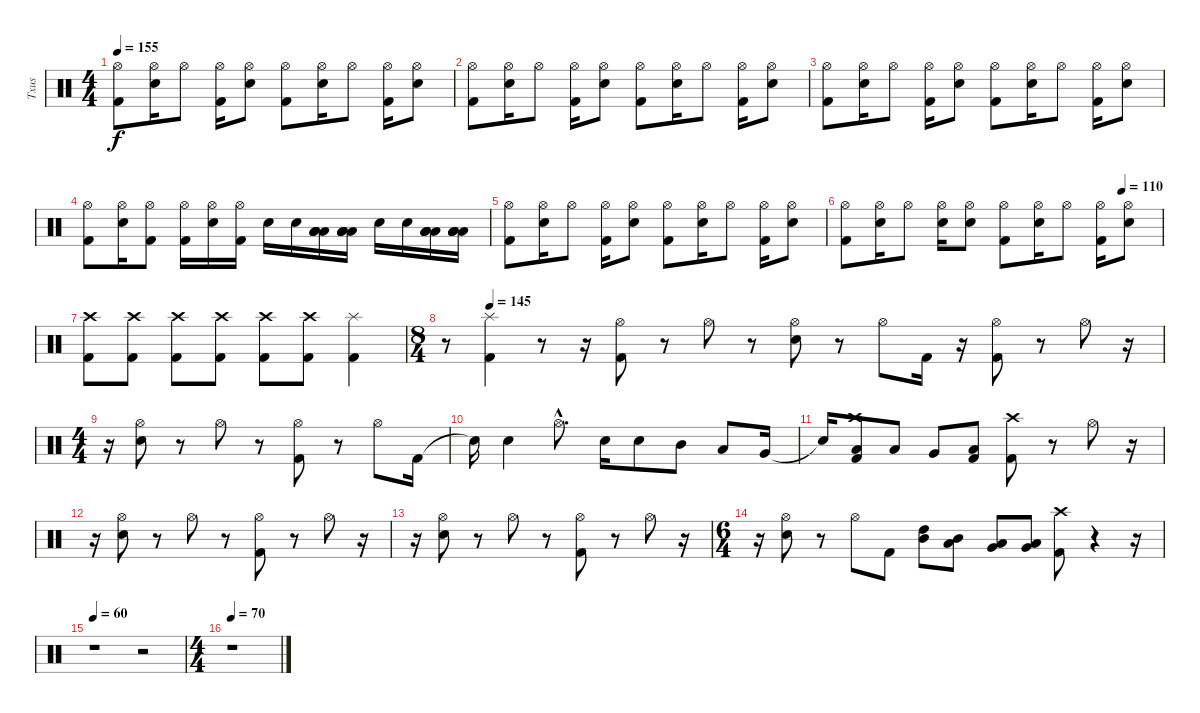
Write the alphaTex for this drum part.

\track ("Txus" "Txus") {instrument percussion}
\staff {score}
\articulation defaults
\ts (4 4)
\tempo 155
\clef neutral
\ks c
("Kick (hit) 2" "Hi-Hat (open)").8{dy f} ("Snare (hit) 2" "Hi-Hat (open)").16 "Hi-Hat (open)".8 ("Kick (hit) 2" "Hi-Hat (open)").16 ("Snare (hit) 2" "Hi-Hat (open)").8 ("Kick (hit) 2" "Hi-Hat (open)").8 ("Snare (hit) 2" "Hi-Hat (open)").16 "Hi-Hat (open)".8 ("Kick (hit) 2" "Hi-Hat (open)").16 ("Snare (hit) 2" "Hi-Hat (open)").8 |
("Kick (hit) 2" "Hi-Hat (open)").8 ("Snare (hit) 2" "Hi-Hat (open)").16 "Hi-Hat (open)".8 ("Kick (hit) 2" "Hi-Hat (open)").16 ("Snare (hit) 2" "Hi-Hat (open)").8 ("Kick (hit) 2" "Hi-Hat (open)").8 ("Snare (hit) 2" "Hi-Hat (open)").16 "Hi-Hat (open)".8 ("Kick (hit) 2" "Hi-Hat (open)").16 ("Snare (hit) 2" "Hi-Hat (open)").8 |
("Kick (hit) 2" "Hi-Hat (open)").8 ("Snare (hit) 2" "Hi-Hat (open)").16 "Hi-Hat (open)".8 ("Kick (hit) 2" "Hi-Hat (open)").16 ("Snare (hit) 2" "Hi-Hat (open)").8 ("Kick (hit) 2" "Hi-Hat (open)").8 ("Snare (hit) 2" "Hi-Hat (open)").16 "Hi-Hat (open)".8 ("Kick (hit) 2" "Hi-Hat (open)").16 ("Snare (hit) 2" "Hi-Hat (open)").8 |
("Hi-Hat (open)" "Kick (hit) 2").8 ("Hi-Hat (open)" "Snare (hit) 2").16 ("Hi-Hat (open)" "Kick (hit) 2").8 ("Hi-Hat (open)" "Kick (hit) 2").16 ("Hi-Hat (open)" "Snare (hit) 2").16 ("Hi-Hat (open)" "Kick (hit) 2").16 "Snare (hit) 2".16 "Snare (hit) 2".16 ("Low Tom (hit)" "Low Tom (hit)" "Low Tom (hit)" "Low Tom (hit)").16 ("Low Tom (hit)" "Low Tom (hit)" "Low Tom (hit)" "Low Tom (hit)").16 "Snare (hit) 2".16 "Snare (hit) 2".16 ("Low Tom (hit)" "Low Tom (hit)" "Low Tom (hit)" "Low Tom (hit)").16 ("Low Tom (hit)" "Low Tom (hit)" "Low Tom (hit)" "Low Tom (hit)").16 |
("Kick (hit) 2" "Hi-Hat (open)").8 ("Snare (hit) 2" "Hi-Hat (open)").16 "Hi-Hat (open)".8 ("Kick (hit) 2" "Hi-Hat (open)").16 ("Snare (hit) 2" "Hi-Hat (open)").8 ("Kick (hit) 2" "Hi-Hat (open)").8 ("Snare (hit) 2" "Hi-Hat (open)").16 "Hi-Hat (open)".8 ("Kick (hit) 2" "Hi-Hat (open)").16 ("Snare (hit) 2" "Hi-Hat (open)").8 |
\tempo (110 0.875)
("Kick (hit) 2" "Hi-Hat (open)").8 ("Snare (hit) 2" "Hi-Hat (open)").16 "Hi-Hat (open)".8 ("Snare (hit) 2" "Hi-Hat (open)").16 ("Snare (hit) 2" "Hi-Hat (open)").8 ("Kick (hit) 2" "Hi-Hat (open)").8 ("Snare (hit) 2" "Hi-Hat (open)").16 "Hi-Hat (open)".8 ("Kick (hit) 2" "Hi-Hat (open)").16 ("Snare (hit) 2" "Hi-Hat (open)").8 |
("Kick (hit) 2" "Crash high (hit)").8 ("Kick (hit) 2" "Crash high (hit)").8 ("Kick (hit) 2" "Crash high (hit)").8 ("Kick (hit) 2" "Crash high (hit)").8 ("Kick (hit) 2" "Crash high (hit)").8 ("Kick (hit) 2" "Crash high (hit)").8 ("Kick (hit) 2" "Splash (hit)").4 |
\ts (8 4)
\tempo (155 0.0625)
\tempo (145 0.0625)
r.8 ("Kick (hit) 2" "Splash (hit)").4 r.8 r.16 ("Kick (hit) 2" "Hi-Hat (open)").8 r.8 "Hi-Hat (open)".8 r.8 ("Snare (hit) 2" "Hi-Hat (open)").8 r.8 "Hi-Hat (open)".8 "Kick (hit) 2".16 r.16 ("Kick (hit) 2" "Hi-Hat (open)").8 r.8 "Hi-Hat (open)".8 r.16 |
\ts (4 4)
r.16 ("Snare (hit) 2" "Hi-Hat (open)").8 r.8 "Hi-Hat (open)".8 r.8 ("Kick (hit) 2" "Hi-Hat (open)").8 r.8 "Hi-Hat (open)".8 "Kick (hit) 2".16 |
"Snare (hit)"{t}.16 "Snare (hit) 2".4 "Hi-Hat (open)"{hac}.8{d} "Snare (hit) 2".16 "Snare (hit) 2".8 "Mid Tom (hit)".8 "Low Tom (hit)".8 "Very Low Tom (hit)".16 |
"Snare (hit)"{t}.16 ("Kick (hit) 2" "Low Floor Tom (hit)" "Crash high (hit)").8 "Low Tom (hit)".8 "Very Low Tom (hit)".8 ("Kick (hit) 2" "Low Floor Tom (hit)").8 ("Kick (hit) 2" "Crash high (hit)").8 r.8 "Hi-Hat (open)".8 r.16 |
r.16 ("Snare (hit) 2" "Hi-Hat (open)").8 r.8 "Hi-Hat (open)".8 r.8 ("Kick (hit) 2" "Hi-Hat (open)").8 r.8 "Hi-Hat (open)".8 r.16 |
r.16 ("Snare (hit) 2" "Hi-Hat (open)").8 r.8 "Hi-Hat (open)".8 r.8 ("Kick (hit) 2" "Hi-Hat (open)").8 r.8 "Hi-Hat (open)".8 r.16 |
\ts (6 4)
r.16 ("Snare (hit) 2" "Hi-Hat (open)").8 r.8 "Hi-Hat (open)".8 "Kick (hit) 2".8 ("Mid Tom (hit)" "High Tom (hit)").8 ("Low Tom (hit)" "Mid Tom (hit)").8 ("Very Low Tom (hit)" "Low Tom (hit)").8 ("Low Floor Tom (hit)" "Very Low Tom (hit)").8 ("Kick (hit) 2" "Crash high (hit)").8 r.4 r.16 |
\tempo 60
r.1 r.2 |
\ts (4 4)
\tempo 70
r.1
